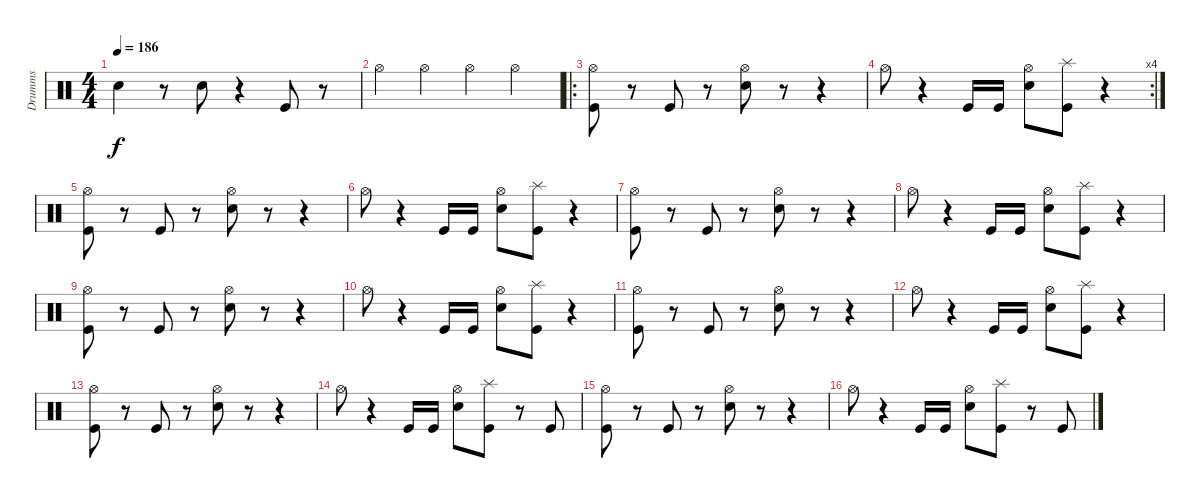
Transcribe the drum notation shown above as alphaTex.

\track ("Drumms" "Drumms") {instrument percussion}
\staff {score}
\articulation defaults
\ts (4 4)
\tempo 186
\clef neutral
\ks c "Snare (hit) 2".4{dy f}
r.8 "Snare (hit) 2".8 r.4 "Kick (hit)".8 r.8 |
"Hi-Hat (open)".4 "Hi-Hat (open)".4 "Hi-Hat (open)".4 "Hi-Hat (open)".4 |
\ro
("Hi-Hat (open)" "Kick (hit)").8 r.8 "Kick (hit)".8 r.8 ("Hi-Hat (open)" "Snare (hit) 2").8 r.8 r.4 |
\rc 4 "Hi-Hat (open)".8
r.4 "Kick (hit)".16 "Kick (hit)".16 ("Hi-Hat (open)" "Snare (hit) 2").8 ("Splash (hit)" "Kick (hit)").8 r.4 |
("Hi-Hat (open)" "Kick (hit)").8 r.8 "Kick (hit)".8 r.8 ("Hi-Hat (open)" "Snare (hit) 2").8 r.8 r.4 |
"Hi-Hat (open)".8 r.4 "Kick (hit)".16 "Kick (hit)".16 ("Hi-Hat (open)" "Snare (hit) 2").8 ("Splash (hit)" "Kick (hit)").8 r.4 |
("Hi-Hat (open)" "Kick (hit)").8 r.8 "Kick (hit)".8 r.8 ("Hi-Hat (open)" "Snare (hit) 2").8 r.8 r.4 |
"Hi-Hat (open)".8 r.4 "Kick (hit)".16 "Kick (hit)".16 ("Hi-Hat (open)" "Snare (hit) 2").8 ("Splash (hit)" "Kick (hit)").8 r.4 |
("Hi-Hat (open)" "Kick (hit)").8 r.8 "Kick (hit)".8 r.8 ("Hi-Hat (open)" "Snare (hit) 2").8 r.8 r.4 |
"Hi-Hat (open)".8 r.4 "Kick (hit)".16 "Kick (hit)".16 ("Hi-Hat (open)" "Snare (hit) 2").8 ("Splash (hit)" "Kick (hit)").8 r.4 |
("Hi-Hat (open)" "Kick (hit)").8 r.8 "Kick (hit)".8 r.8 ("Hi-Hat (open)" "Snare (hit) 2").8 r.8 r.4 |
"Hi-Hat (open)".8 r.4 "Kick (hit)".16 "Kick (hit)".16 ("Hi-Hat (open)" "Snare (hit) 2").8 ("Splash (hit)" "Kick (hit)").8 r.4 |
("Hi-Hat (open)" "Kick (hit)").8 r.8 "Kick (hit)".8 r.8 ("Hi-Hat (open)" "Snare (hit) 2").8 r.8 r.4 |
"Hi-Hat (open)".8 r.4 "Kick (hit)".16 "Kick (hit)".16 ("Hi-Hat (open)" "Snare (hit) 2").8 ("Splash (hit)" "Kick (hit)").8 r.8 "Kick (hit)".8 |
("Hi-Hat (open)" "Kick (hit)").8 r.8 "Kick (hit)".8 r.8 ("Hi-Hat (open)" "Snare (hit) 2").8 r.8 r.4 |
"Hi-Hat (open)".8 r.4 "Kick (hit)".16 "Kick (hit)".16 ("Hi-Hat (open)" "Snare (hit) 2").8 ("Splash (hit)" "Kick (hit)").8 r.8 "Kick (hit)".8
